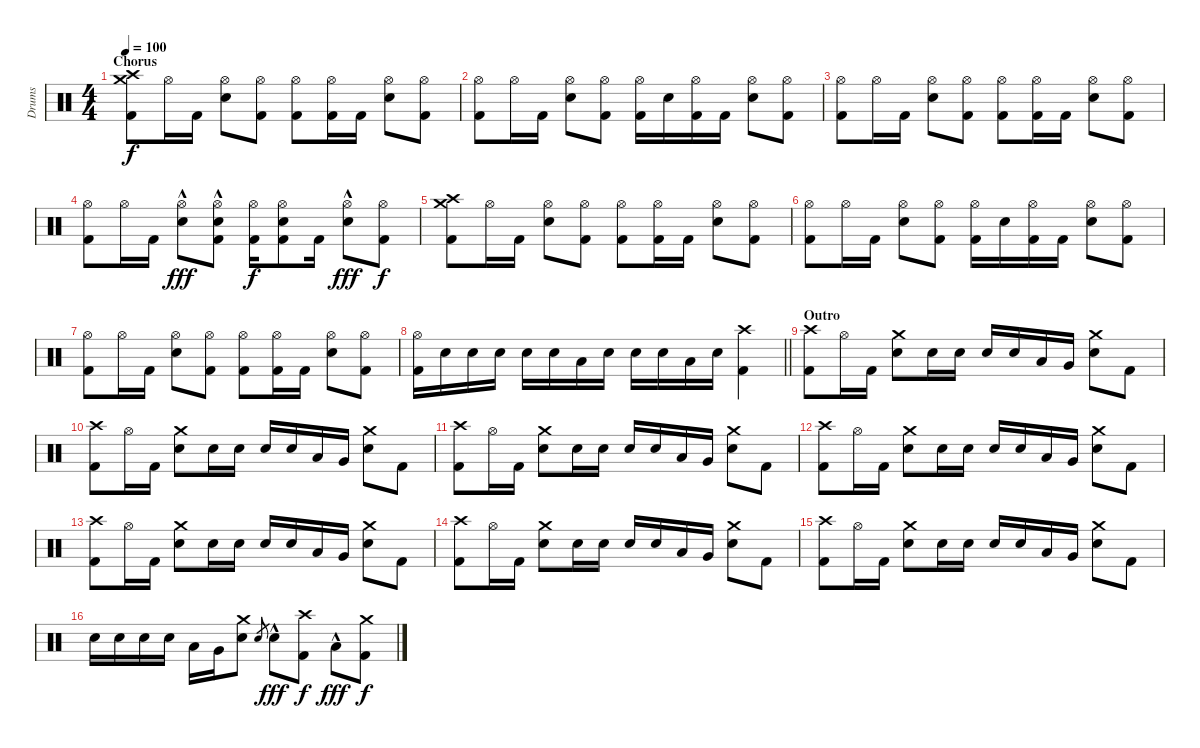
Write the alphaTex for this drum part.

\track ("Drums" "Drums") {instrument percussion}
\staff {score}
\articulation defaults
\ts (4 4)
\section ("" "Chorus")
\tempo 100
\clef neutral
\ks c
("Crash medium (hit)" "Crash high (hit)" "Kick (hit) 2").8{dy f} "Hi-Hat (open)".16 "Kick (hit) 2".16 ("Hi-Hat (open)" "Snare (hit) 2").8 ("Hi-Hat (open)" "Kick (hit) 2").8 ("Hi-Hat (open)" "Kick (hit) 2").8 ("Hi-Hat (open)" "Kick (hit) 2").16 "Kick (hit) 2".16 ("Hi-Hat (open)" "Snare (hit) 2").8 ("Hi-Hat (open)" "Kick (hit) 2").8 |
("Hi-Hat (open)" "Kick (hit) 2").8 "Hi-Hat (open)".16 "Kick (hit) 2".16 ("Hi-Hat (open)" "Snare (hit) 2").8 ("Hi-Hat (open)" "Kick (hit) 2").8 ("Hi-Hat (open)" "Kick (hit) 2").16 "Snare (hit) 2".16 ("Hi-Hat (open)" "Kick (hit) 2").16 "Kick (hit) 2".16 ("Hi-Hat (open)" "Snare (hit) 2").8 ("Hi-Hat (open)" "Kick (hit) 2").8 |
("Hi-Hat (open)" "Kick (hit) 2").8 "Hi-Hat (open)".16 "Kick (hit) 2".16 ("Hi-Hat (open)" "Snare (hit) 2").8 ("Hi-Hat (open)" "Kick (hit) 2").8 ("Hi-Hat (open)" "Kick (hit) 2").8 ("Hi-Hat (open)" "Kick (hit) 2").16 "Kick (hit) 2".16 ("Hi-Hat (open)" "Snare (hit) 2").8 ("Hi-Hat (open)" "Kick (hit) 2").8 |
("Hi-Hat (open)" "Kick (hit) 2").8 "Hi-Hat (open)".16 "Kick (hit) 2".16 ("Hi-Hat (open)" "Snare (hit) 2"{hac}).8{dy fff} ("Hi-Hat (open)" "Snare (hit) 2"{hac} "Kick (hit) 2").8 ("Hi-Hat (open)" "Kick (hit) 2").16{dy f} ("Hi-Hat (open)" "Snare (hit) 2" "Kick (hit) 2").8 "Kick (hit) 2".16 ("Hi-Hat (open)" "Snare (hit) 2"{hac}).8{dy fff} ("Hi-Hat (open)" "Kick (hit) 2").8{dy f} |
("Crash medium (hit)" "Crash high (hit)" "Kick (hit) 2").8 "Hi-Hat (open)".16 "Kick (hit) 2".16 ("Hi-Hat (open)" "Snare (hit) 2").8 ("Hi-Hat (open)" "Kick (hit) 2").8 ("Hi-Hat (open)" "Kick (hit) 2").8 ("Hi-Hat (open)" "Kick (hit) 2").16 "Kick (hit) 2".16 ("Hi-Hat (open)" "Snare (hit) 2").8 ("Hi-Hat (open)" "Kick (hit) 2").8 |
("Hi-Hat (open)" "Kick (hit) 2").8 "Hi-Hat (open)".16 "Kick (hit) 2".16 ("Hi-Hat (open)" "Snare (hit) 2").8 ("Hi-Hat (open)" "Kick (hit) 2").8 ("Hi-Hat (open)" "Kick (hit) 2").16 "Snare (hit) 2".16 ("Hi-Hat (open)" "Kick (hit) 2").16 "Kick (hit) 2".16 ("Hi-Hat (open)" "Snare (hit) 2").8 ("Hi-Hat (open)" "Kick (hit) 2").8 |
("Hi-Hat (open)" "Kick (hit) 2").8 "Hi-Hat (open)".16 "Kick (hit) 2".16 ("Hi-Hat (open)" "Snare (hit) 2").8 ("Hi-Hat (open)" "Kick (hit) 2").8 ("Hi-Hat (open)" "Kick (hit) 2").8 ("Hi-Hat (open)" "Kick (hit) 2").16 "Kick (hit) 2".16 ("Hi-Hat (open)" "Snare (hit) 2").8 ("Hi-Hat (open)" "Kick (hit) 2").8 |
\barLineRight lightlight
("Hi-Hat (open)" "Kick (hit) 2").16 "Snare (hit) 2".16 "Snare (hit) 2".16 "Snare (hit) 2".16 "Snare (hit) 2".16 "Snare (hit) 2".16 "Low Tom (hit)".16 "Snare (hit) 2".16 "Snare (hit) 2".16 "Snare (hit) 2".16 "Low Tom (hit)".16 "Snare (hit) 2".16 ("Crash high (hit)" "Kick (hit) 2").4 |
\section ("" "Outro")
("Crash high (hit)" "Kick (hit) 2").8 "Hi-Hat (open)".16 "Kick (hit) 2".16 ("Crash medium (hit)" "Snare (hit) 2").8 "Snare (hit) 2".16 "Snare (hit) 2".16 "Snare (hit) 2".16 "Snare (hit) 2".16 "Low Tom (hit)".16 "Very Low Tom (hit)".16 ("Crash medium (hit)" "Snare (hit) 2").8 "Kick (hit) 2".8 |
("Crash high (hit)" "Kick (hit) 2").8 "Hi-Hat (open)".16 "Kick (hit) 2".16 ("Crash medium (hit)" "Snare (hit) 2").8 "Snare (hit) 2".16 "Snare (hit) 2".16 "Snare (hit) 2".16 "Snare (hit) 2".16 "Low Tom (hit)".16 "Very Low Tom (hit)".16 ("Crash medium (hit)" "Snare (hit) 2").8 "Kick (hit) 2".8 |
("Crash high (hit)" "Kick (hit) 2").8 "Hi-Hat (open)".16 "Kick (hit) 2".16 ("Crash medium (hit)" "Snare (hit) 2").8 "Snare (hit) 2".16 "Snare (hit) 2".16 "Snare (hit) 2".16 "Snare (hit) 2".16 "Low Tom (hit)".16 "Very Low Tom (hit)".16 ("Crash medium (hit)" "Snare (hit) 2").8 "Kick (hit) 2".8 |
("Crash high (hit)" "Kick (hit) 2").8 "Hi-Hat (open)".16 "Kick (hit) 2".16 ("Crash medium (hit)" "Snare (hit) 2").8 "Snare (hit) 2".16 "Snare (hit) 2".16 "Snare (hit) 2".16 "Snare (hit) 2".16 "Low Tom (hit)".16 "Very Low Tom (hit)".16 ("Crash medium (hit)" "Snare (hit) 2").8 "Kick (hit) 2".8 |
("Crash high (hit)" "Kick (hit) 2").8 "Hi-Hat (open)".16 "Kick (hit) 2".16 ("Crash medium (hit)" "Snare (hit) 2").8 "Snare (hit) 2".16 "Snare (hit) 2".16 "Snare (hit) 2".16 "Snare (hit) 2".16 "Low Tom (hit)".16 "Very Low Tom (hit)".16 ("Crash medium (hit)" "Snare (hit) 2").8 "Kick (hit) 2".8 |
("Crash high (hit)" "Kick (hit) 2").8 "Hi-Hat (open)".16 "Kick (hit) 2".16 ("Crash medium (hit)" "Snare (hit) 2").8 "Snare (hit) 2".16 "Snare (hit) 2".16 "Snare (hit) 2".16 "Snare (hit) 2".16 "Low Tom (hit)".16 "Very Low Tom (hit)".16 ("Crash medium (hit)" "Snare (hit) 2").8 "Kick (hit) 2".8 |
("Crash high (hit)" "Kick (hit) 2").8 "Hi-Hat (open)".16 "Kick (hit) 2".16 ("Crash medium (hit)" "Snare (hit) 2").8 "Snare (hit) 2".16 "Snare (hit) 2".16 "Snare (hit) 2".16 "Snare (hit) 2".16 "Low Tom (hit)".16 "Very Low Tom (hit)".16 ("Crash medium (hit)" "Snare (hit) 2").8 "Kick (hit) 2".8 |
"Snare (hit) 2".16 "Snare (hit) 2".16 "Snare (hit) 2".16 "Snare (hit) 2".16 "Low Tom (hit)".16 "Very Low Tom (hit)".16 ("Crash medium (hit)" "Snare (hit) 2").8 "Snare (hit) 2".8{gr} "Snare (hit) 2"{hac}.8{dy fff} ("Crash high (hit)" "Kick (hit) 2").8{dy f} "Low Tom (hit)"{hac}.8{dy fff} ("Crash medium (hit)" "Kick (hit) 2").8{dy f}
